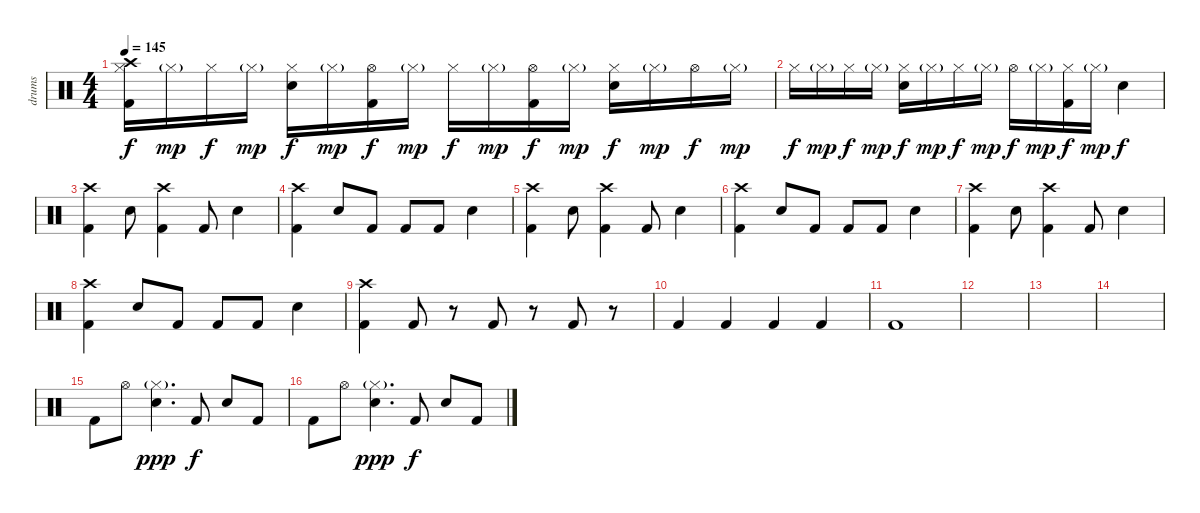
\track ("drums" "drums") {instrument percussion}
\staff {score}
\articulation defaults
\ts (4 4)
\tempo 145
\clef neutral
\ks c
("Hi-Hat (closed)" "Crash high (hit)" "Kick (hit) 2").16{dy f} "Hi-Hat (closed)"{g}.16{dy mp} "Hi-Hat (closed)".16{dy f} "Hi-Hat (closed)"{g}.16{dy mp} ("Hi-Hat (closed)" "Snare (hit) 2").16{dy f} "Hi-Hat (closed)"{g}.16{dy mp} ("Hi-Hat (open)" "Kick (hit) 2").16{dy f} "Hi-Hat (closed)"{g}.16{dy mp} "Hi-Hat (closed)".16{dy f} "Hi-Hat (closed)"{g}.16{dy mp} ("Hi-Hat (open)" "Kick (hit) 2").16{dy f} "Hi-Hat (closed)"{g}.16{dy mp} ("Hi-Hat (closed)" "Snare (hit) 2").16{dy f} "Hi-Hat (closed)"{g}.16{dy mp} "Hi-Hat (open)".16{dy f} "Hi-Hat (closed)"{g}.16{dy mp} |
"Hi-Hat (closed)".16{dy f} "Hi-Hat (closed)"{g}.16{dy mp} "Hi-Hat (closed)".16{dy f} "Hi-Hat (closed)"{g}.16{dy mp} ("Hi-Hat (closed)" "Snare (hit) 2").16{dy f} "Hi-Hat (closed)"{g}.16{dy mp} "Hi-Hat (closed)".16{dy f} "Hi-Hat (closed)"{g}.16{dy mp} "Hi-Hat (open)".16{dy f} "Hi-Hat (closed)"{g}.16{dy mp} ("Hi-Hat (closed)" "Kick (hit) 2").16{dy f} "Hi-Hat (closed)"{g}.16{dy mp} "Snare (hit) 2".4{dy f} |
("Crash high (hit)" "Kick (hit) 2").4 "Snare (hit) 2".8 ("Crash high (hit)" "Kick (hit) 2").4 "Kick (hit) 2".8 "Snare (hit) 2".4 |
("Crash high (hit)" "Kick (hit) 2").4 "Snare (hit) 2".8 "Kick (hit) 2".8 "Kick (hit) 2".8 "Kick (hit) 2".8 "Snare (hit) 2".4 |
("Crash high (hit)" "Kick (hit) 2").4 "Snare (hit) 2".8 ("Crash high (hit)" "Kick (hit) 2").4 "Kick (hit) 2".8 "Snare (hit) 2".4 |
("Crash high (hit)" "Kick (hit) 2").4 "Snare (hit) 2".8 "Kick (hit) 2".8 "Kick (hit) 2".8 "Kick (hit) 2".8 "Snare (hit) 2".4 |
("Crash high (hit)" "Kick (hit) 2").4 "Snare (hit) 2".8 ("Crash high (hit)" "Kick (hit) 2").4 "Kick (hit) 2".8 "Snare (hit) 2".4 |
("Crash high (hit)" "Kick (hit) 2").4 "Snare (hit) 2".8 "Kick (hit) 2".8 "Kick (hit) 2".8 "Kick (hit) 2".8 "Snare (hit) 2".4 |
("Crash high (hit)" "Kick (hit) 2").4 "Kick (hit) 2".8 r.8 "Kick (hit) 2".8 r.8 "Kick (hit) 2".8 r.8 |
"Kick (hit) 2".4 "Kick (hit) 2".4 "Kick (hit) 2".4 "Kick (hit) 2".4 |
"Kick (hit) 2".1 |
|
|
|
"Kick (hit) 2".8 "Hi-Hat (open)".8 ("Hi-Hat (closed)"{g} "Snare (hit) 2").4{d dy ppp} "Kick (hit) 2".8{dy f} "Snare (hit) 2".8 "Kick (hit) 2".8 |
"Kick (hit) 2".8 "Hi-Hat (open)".8 ("Hi-Hat (closed)"{g} "Snare (hit) 2").4{d dy ppp} "Kick (hit) 2".8{dy f} "Snare (hit) 2".8 "Kick (hit) 2".8
